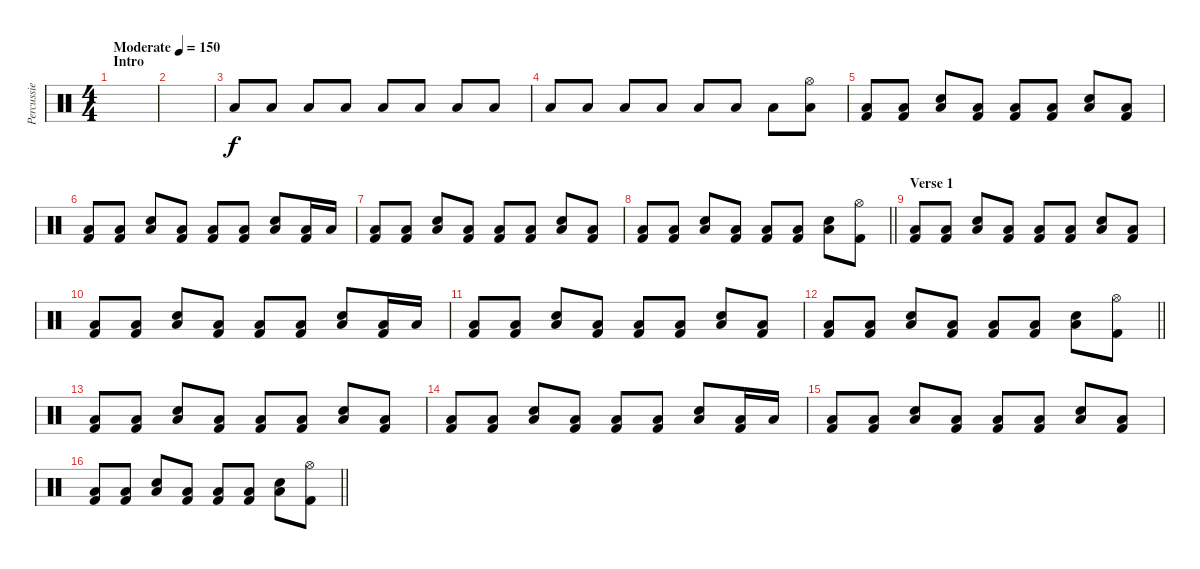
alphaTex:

\track ("Percussie" "Percussie") {instrument percussion}
\staff {score}
\articulation defaults
\ts (4 4)
\section ("" "Intro")
\tempo (150 "Moderate")
\clef neutral
\ks c
|
|
"Low Floor Tom (hit)".8{volume 11} "Low Floor Tom (hit)".8 "Low Floor Tom (hit)".8 "Low Floor Tom (hit)".8 "Low Floor Tom (hit)".8 "Low Floor Tom (hit)".8 "Low Floor Tom (hit)".8 "Low Floor Tom (hit)".8 |
"Low Floor Tom (hit)".8 "Low Floor Tom (hit)".8 "Low Floor Tom (hit)".8 "Low Floor Tom (hit)".8 "Low Floor Tom (hit)".8 "Low Floor Tom (hit)".8 "Low Floor Tom (hit)".8 ("Hi-Hat (open)" "Low Floor Tom (hit)").8 |
("Low Floor Tom (hit)" "Kick (hit) 2").8 ("Low Floor Tom (hit)" "Kick (hit) 2").8 ("Snare (hit) 2" "Low Floor Tom (hit)").8 ("Low Floor Tom (hit)" "Kick (hit) 2").8 ("Low Floor Tom (hit)" "Kick (hit) 2").8 ("Low Floor Tom (hit)" "Kick (hit) 2").8 ("Snare (hit) 2" "Low Floor Tom (hit)").8 ("Low Floor Tom (hit)" "Kick (hit) 2").8 |
("Low Floor Tom (hit)" "Kick (hit) 2").8 ("Low Floor Tom (hit)" "Kick (hit) 2").8 ("Snare (hit) 2" "Low Floor Tom (hit)").8 ("Low Floor Tom (hit)" "Kick (hit) 2").8 ("Low Floor Tom (hit)" "Kick (hit) 2").8 ("Low Floor Tom (hit)" "Kick (hit) 2").8 ("Snare (hit) 2" "Low Floor Tom (hit)").8 ("Low Floor Tom (hit)" "Kick (hit) 2").16 "Low Floor Tom (hit)".16 |
("Low Floor Tom (hit)" "Kick (hit) 2").8 ("Low Floor Tom (hit)" "Kick (hit) 2").8 ("Snare (hit) 2" "Low Floor Tom (hit)").8 ("Low Floor Tom (hit)" "Kick (hit) 2").8 ("Low Floor Tom (hit)" "Kick (hit) 2").8 ("Low Floor Tom (hit)" "Kick (hit) 2").8 ("Snare (hit) 2" "Low Floor Tom (hit)").8 ("Low Floor Tom (hit)" "Kick (hit) 2").8 |
\barLineRight lightlight
("Low Floor Tom (hit)" "Kick (hit) 2").8 ("Low Floor Tom (hit)" "Kick (hit) 2").8 ("Snare (hit) 2" "Low Floor Tom (hit)").8 ("Low Floor Tom (hit)" "Kick (hit) 2").8 ("Low Floor Tom (hit)" "Kick (hit) 2").8 ("Low Floor Tom (hit)" "Kick (hit) 2").8 ("Snare (hit) 2" "Low Floor Tom (hit)").8 ("Hi-Hat (open)" "Kick (hit) 2").8 |
\section ("" "Verse 1")
("Low Floor Tom (hit)" "Kick (hit) 2").8 ("Low Floor Tom (hit)" "Kick (hit) 2").8 ("Snare (hit) 2" "Low Floor Tom (hit)").8 ("Low Floor Tom (hit)" "Kick (hit) 2").8 ("Low Floor Tom (hit)" "Kick (hit) 2").8 ("Low Floor Tom (hit)" "Kick (hit) 2").8 ("Snare (hit) 2" "Low Floor Tom (hit)").8 ("Low Floor Tom (hit)" "Kick (hit) 2").8 |
("Low Floor Tom (hit)" "Kick (hit) 2").8 ("Low Floor Tom (hit)" "Kick (hit) 2").8 ("Snare (hit) 2" "Low Floor Tom (hit)").8 ("Low Floor Tom (hit)" "Kick (hit) 2").8 ("Low Floor Tom (hit)" "Kick (hit) 2").8 ("Low Floor Tom (hit)" "Kick (hit) 2").8 ("Snare (hit) 2" "Low Floor Tom (hit)").8 ("Low Floor Tom (hit)" "Kick (hit) 2").16 "Low Floor Tom (hit)".16 |
("Low Floor Tom (hit)" "Kick (hit) 2").8 ("Low Floor Tom (hit)" "Kick (hit) 2").8 ("Snare (hit) 2" "Low Floor Tom (hit)").8 ("Low Floor Tom (hit)" "Kick (hit) 2").8 ("Low Floor Tom (hit)" "Kick (hit) 2").8 ("Low Floor Tom (hit)" "Kick (hit) 2").8 ("Snare (hit) 2" "Low Floor Tom (hit)").8 ("Low Floor Tom (hit)" "Kick (hit) 2").8 |
\barLineRight lightlight
("Low Floor Tom (hit)" "Kick (hit) 2").8 ("Low Floor Tom (hit)" "Kick (hit) 2").8 ("Snare (hit) 2" "Low Floor Tom (hit)").8 ("Low Floor Tom (hit)" "Kick (hit) 2").8 ("Low Floor Tom (hit)" "Kick (hit) 2").8 ("Low Floor Tom (hit)" "Kick (hit) 2").8 ("Snare (hit) 2" "Low Floor Tom (hit)").8 ("Hi-Hat (open)" "Kick (hit) 2").8 |
("Low Floor Tom (hit)" "Kick (hit) 2").8 ("Low Floor Tom (hit)" "Kick (hit) 2").8 ("Snare (hit) 2" "Low Floor Tom (hit)").8 ("Low Floor Tom (hit)" "Kick (hit) 2").8 ("Low Floor Tom (hit)" "Kick (hit) 2").8 ("Low Floor Tom (hit)" "Kick (hit) 2").8 ("Snare (hit) 2" "Low Floor Tom (hit)").8 ("Low Floor Tom (hit)" "Kick (hit) 2").8 |
("Low Floor Tom (hit)" "Kick (hit) 2").8 ("Low Floor Tom (hit)" "Kick (hit) 2").8 ("Snare (hit) 2" "Low Floor Tom (hit)").8 ("Low Floor Tom (hit)" "Kick (hit) 2").8 ("Low Floor Tom (hit)" "Kick (hit) 2").8 ("Low Floor Tom (hit)" "Kick (hit) 2").8 ("Snare (hit) 2" "Low Floor Tom (hit)").8 ("Low Floor Tom (hit)" "Kick (hit) 2").16 "Low Floor Tom (hit)".16 |
("Low Floor Tom (hit)" "Kick (hit) 2").8 ("Low Floor Tom (hit)" "Kick (hit) 2").8 ("Snare (hit) 2" "Low Floor Tom (hit)").8 ("Low Floor Tom (hit)" "Kick (hit) 2").8 ("Low Floor Tom (hit)" "Kick (hit) 2").8 ("Low Floor Tom (hit)" "Kick (hit) 2").8 ("Snare (hit) 2" "Low Floor Tom (hit)").8 ("Low Floor Tom (hit)" "Kick (hit) 2").8 |
\barLineRight lightlight
("Low Floor Tom (hit)" "Kick (hit) 2").8 ("Low Floor Tom (hit)" "Kick (hit) 2").8 ("Snare (hit) 2" "Low Floor Tom (hit)").8 ("Low Floor Tom (hit)" "Kick (hit) 2").8 ("Low Floor Tom (hit)" "Kick (hit) 2").8 ("Low Floor Tom (hit)" "Kick (hit) 2").8 ("Snare (hit) 2" "Low Floor Tom (hit)").8 ("Hi-Hat (open)" "Kick (hit) 2").8
